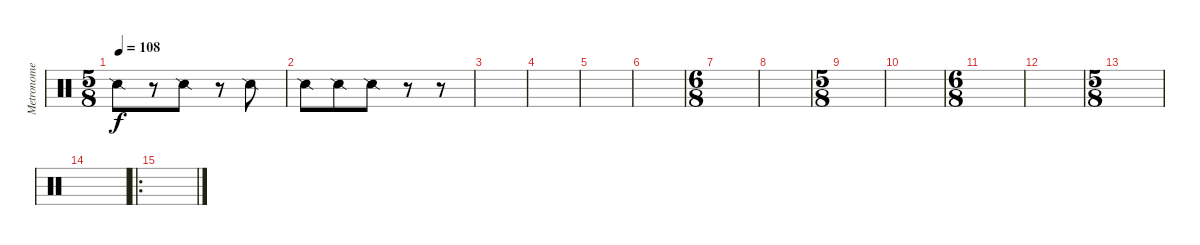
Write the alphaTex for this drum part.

\track ("Metronome" "Metronome") {instrument percussion}
\staff {score}
\articulation defaults
\ts (5 8)
\tempo 108
\clef neutral
\ks c "Snare (side stick) 2".8{dy f}
r.8 "Snare (side stick) 2".8 r.8 "Snare (side stick) 2".8 |
"Snare (side stick) 2".8 "Snare (side stick) 2".8 "Snare (side stick) 2".8 r.8 r.8 |
|
|
|
|
\ts (6 8)
|
|
\ts (5 8)
|
|
\ts (6 8)
|
|
\ts (5 8)
|
|
\ro
